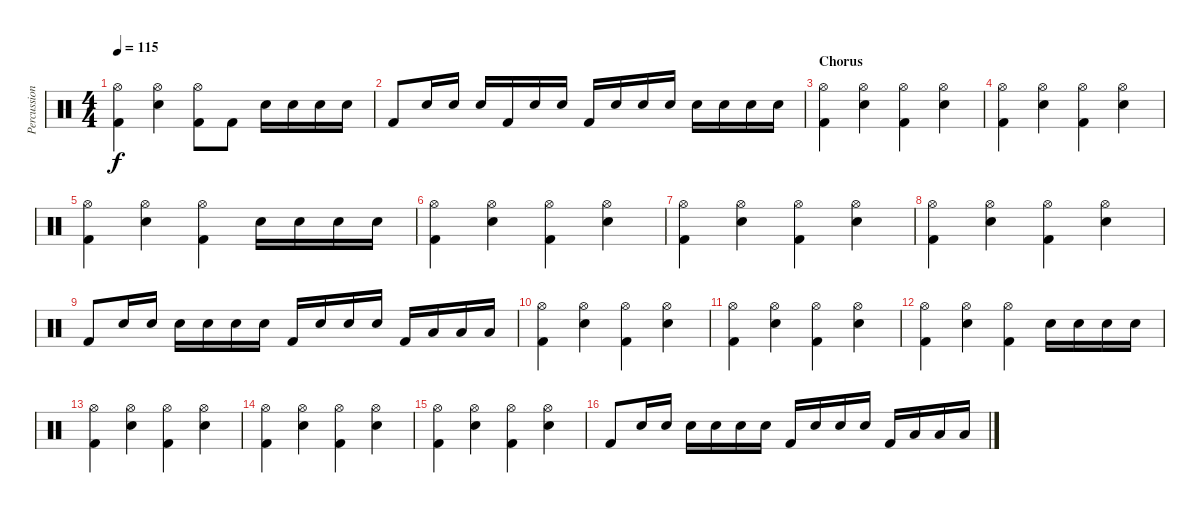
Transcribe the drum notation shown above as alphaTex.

\track ("Percussioni" "Percussion") {instrument percussion}
\staff {score}
\articulation defaults
\ts (4 4)
\tempo 115
\clef neutral
\ks c
("Hi-Hat (open)" "Kick (hit) 2").4{dy f} ("Hi-Hat (open)" "Snare (hit) 2").4 ("Hi-Hat (open)" "Kick (hit) 2").8 "Kick (hit) 2".8 "Snare (hit) 2".16 "Snare (hit) 2".16 "Snare (hit) 2".16 "Snare (hit) 2".16 |
"Kick (hit) 2".8 "Snare (hit) 2".16 "Snare (hit) 2".16 "Snare (hit) 2".16 "Kick (hit) 2".16 "Snare (hit) 2".16 "Snare (hit) 2".16 "Kick (hit) 2".16 "Snare (hit) 2".16 "Snare (hit) 2".16 "Snare (hit) 2".16 "Snare (hit) 2".16 "Snare (hit) 2".16 "Snare (hit) 2".16 "Snare (hit) 2".16 |
\section ("" "Chorus")
("Hi-Hat (open)" "Kick (hit) 2").4 ("Hi-Hat (open)" "Snare (hit) 2").4 ("Hi-Hat (open)" "Kick (hit) 2").4 ("Hi-Hat (open)" "Snare (hit) 2").4 |
("Hi-Hat (open)" "Kick (hit) 2").4 ("Hi-Hat (open)" "Snare (hit) 2").4 ("Hi-Hat (open)" "Kick (hit) 2").4 ("Hi-Hat (open)" "Snare (hit) 2").4 |
("Hi-Hat (open)" "Kick (hit) 2").4 ("Hi-Hat (open)" "Snare (hit) 2").4 ("Hi-Hat (open)" "Kick (hit) 2").4 "Snare (hit) 2".16 "Snare (hit) 2".16 "Snare (hit) 2".16 "Snare (hit) 2".16 |
("Hi-Hat (open)" "Kick (hit) 2").4 ("Hi-Hat (open)" "Snare (hit) 2").4 ("Hi-Hat (open)" "Kick (hit) 2").4 ("Hi-Hat (open)" "Snare (hit) 2").4 |
("Hi-Hat (open)" "Kick (hit) 2").4 ("Hi-Hat (open)" "Snare (hit) 2").4 ("Hi-Hat (open)" "Kick (hit) 2").4 ("Hi-Hat (open)" "Snare (hit) 2").4 |
("Hi-Hat (open)" "Kick (hit) 2").4 ("Hi-Hat (open)" "Snare (hit) 2").4 ("Hi-Hat (open)" "Kick (hit) 2").4 ("Hi-Hat (open)" "Snare (hit) 2").4 |
"Kick (hit) 2".8 "Snare (hit) 2".16 "Snare (hit) 2".16 "Snare (hit) 2".16 "Snare (hit) 2".16 "Snare (hit) 2".16 "Snare (hit) 2".16 "Kick (hit) 2".16 "Snare (hit) 2".16 "Snare (hit) 2".16 "Snare (hit) 2".16 "Kick (hit) 2".16 "Low Tom (hit)".16 "Low Tom (hit)".16 "Low Tom (hit)".16 |
("Hi-Hat (open)" "Kick (hit) 2").4 ("Hi-Hat (open)" "Snare (hit) 2").4 ("Hi-Hat (open)" "Kick (hit) 2").4 ("Hi-Hat (open)" "Snare (hit) 2").4 |
("Hi-Hat (open)" "Kick (hit) 2").4 ("Hi-Hat (open)" "Snare (hit) 2").4 ("Hi-Hat (open)" "Kick (hit) 2").4 ("Hi-Hat (open)" "Snare (hit) 2").4 |
("Hi-Hat (open)" "Kick (hit) 2").4 ("Hi-Hat (open)" "Snare (hit) 2").4 ("Hi-Hat (open)" "Kick (hit) 2").4 "Snare (hit) 2".16 "Snare (hit) 2".16 "Snare (hit) 2".16 "Snare (hit) 2".16 |
("Hi-Hat (open)" "Kick (hit) 2").4 ("Hi-Hat (open)" "Snare (hit) 2").4 ("Hi-Hat (open)" "Kick (hit) 2").4 ("Hi-Hat (open)" "Snare (hit) 2").4 |
("Hi-Hat (open)" "Kick (hit) 2").4 ("Hi-Hat (open)" "Snare (hit) 2").4 ("Hi-Hat (open)" "Kick (hit) 2").4 ("Hi-Hat (open)" "Snare (hit) 2").4 |
("Hi-Hat (open)" "Kick (hit) 2").4 ("Hi-Hat (open)" "Snare (hit) 2").4 ("Hi-Hat (open)" "Kick (hit) 2").4 ("Hi-Hat (open)" "Snare (hit) 2").4 |
"Kick (hit) 2".8 "Snare (hit) 2".16 "Snare (hit) 2".16 "Snare (hit) 2".16 "Snare (hit) 2".16 "Snare (hit) 2".16 "Snare (hit) 2".16 "Kick (hit) 2".16 "Snare (hit) 2".16 "Snare (hit) 2".16 "Snare (hit) 2".16 "Kick (hit) 2".16 "Low Tom (hit)".16 "Low Tom (hit)".16 "Low Tom (hit)".16
